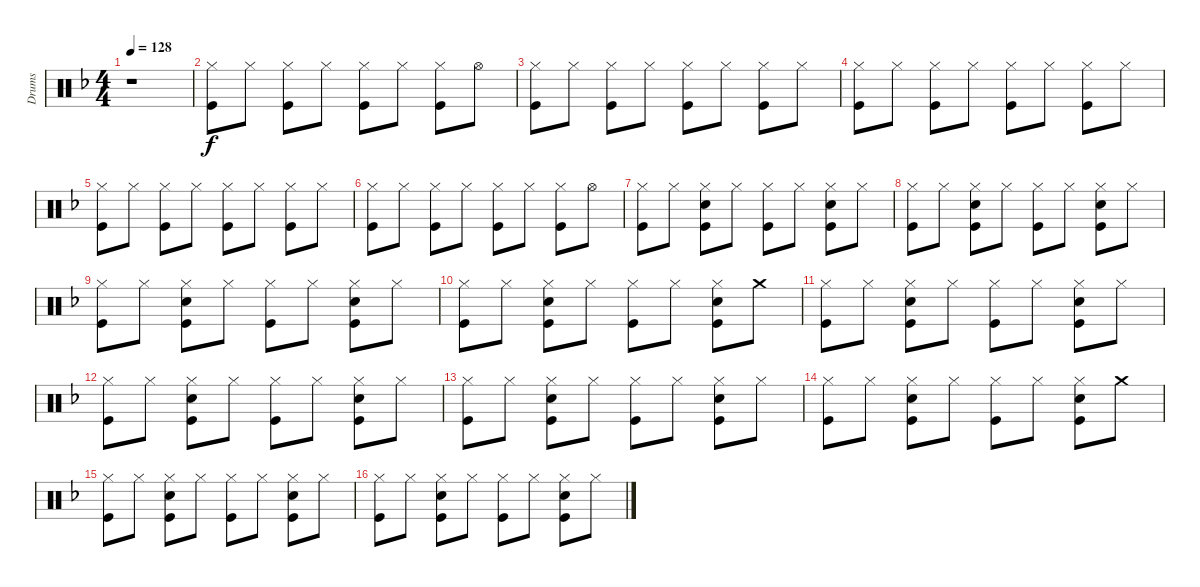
\track ("Drums" "Drums") {instrument percussion}
\staff {score}
\articulation defaults
\ts (4 4)
\tempo 128
\clef neutral
\ks f
r.1{dy f} |
("Hi-Hat (closed)" "Kick (hit)").8 "Hi-Hat (closed)".8 ("Hi-Hat (closed)" "Kick (hit)").8 "Hi-Hat (closed)".8 ("Hi-Hat (closed)" "Kick (hit)").8 "Hi-Hat (closed)".8 ("Hi-Hat (closed)" "Kick (hit)").8 "Hi-Hat (open)".8 |
("Hi-Hat (closed)" "Kick (hit)").8 "Hi-Hat (closed)".8 ("Hi-Hat (closed)" "Kick (hit)").8 "Hi-Hat (closed)".8 ("Hi-Hat (closed)" "Kick (hit)").8 "Hi-Hat (closed)".8 ("Hi-Hat (closed)" "Kick (hit)").8 "Hi-Hat (closed)".8 |
("Hi-Hat (closed)" "Kick (hit)").8 "Hi-Hat (closed)".8 ("Hi-Hat (closed)" "Kick (hit)").8 "Hi-Hat (closed)".8 ("Hi-Hat (closed)" "Kick (hit)").8 "Hi-Hat (closed)".8 ("Hi-Hat (closed)" "Kick (hit)").8 "Hi-Hat (closed)".8 |
("Hi-Hat (closed)" "Kick (hit)").8 "Hi-Hat (closed)".8 ("Hi-Hat (closed)" "Kick (hit)").8 "Hi-Hat (closed)".8 ("Hi-Hat (closed)" "Kick (hit)").8 "Hi-Hat (closed)".8 ("Hi-Hat (closed)" "Kick (hit)").8 "Hi-Hat (closed)".8 |
("Hi-Hat (closed)" "Kick (hit)").8 "Hi-Hat (closed)".8 ("Hi-Hat (closed)" "Kick (hit)").8 "Hi-Hat (closed)".8 ("Hi-Hat (closed)" "Kick (hit)").8 "Hi-Hat (closed)".8 ("Hi-Hat (closed)" "Kick (hit)").8 "Hi-Hat (open)".8 |
("Hi-Hat (closed)" "Kick (hit)").8 "Hi-Hat (closed)".8 ("Hi-Hat (closed)" "Snare (hit) 2" "Kick (hit)").8 "Hi-Hat (closed)".8 ("Hi-Hat (closed)" "Kick (hit)").8 "Hi-Hat (closed)".8 ("Hi-Hat (closed)" "Snare (hit) 2" "Kick (hit)").8 "Hi-Hat (closed)".8 |
("Hi-Hat (closed)" "Kick (hit)").8 "Hi-Hat (closed)".8 ("Hi-Hat (closed)" "Snare (hit) 2" "Kick (hit)").8 "Hi-Hat (closed)".8 ("Hi-Hat (closed)" "Kick (hit)").8 "Hi-Hat (closed)".8 ("Hi-Hat (closed)" "Snare (hit) 2" "Kick (hit)").8 "Hi-Hat (closed)".8 |
("Hi-Hat (closed)" "Kick (hit)").8 "Hi-Hat (closed)".8 ("Hi-Hat (closed)" "Snare (hit) 2" "Kick (hit)").8 "Hi-Hat (closed)".8 ("Hi-Hat (closed)" "Kick (hit)").8 "Hi-Hat (closed)".8 ("Hi-Hat (closed)" "Snare (hit) 2" "Kick (hit)").8 "Hi-Hat (closed)".8 |
("Hi-Hat (closed)" "Kick (hit)").8 "Hi-Hat (closed)".8 ("Hi-Hat (closed)" "Snare (hit) 2" "Kick (hit)").8 "Hi-Hat (closed)".8 ("Hi-Hat (closed)" "Kick (hit)").8 "Hi-Hat (closed)".8 ("Hi-Hat (closed)" "Snare (hit) 2" "Kick (hit)").8 "Crash medium (hit)".8 |
("Hi-Hat (closed)" "Kick (hit)").8 "Hi-Hat (closed)".8 ("Hi-Hat (closed)" "Snare (hit) 2" "Kick (hit)").8 "Hi-Hat (closed)".8 ("Hi-Hat (closed)" "Kick (hit)").8 "Hi-Hat (closed)".8 ("Hi-Hat (closed)" "Snare (hit) 2" "Kick (hit)").8 "Hi-Hat (closed)".8 |
("Hi-Hat (closed)" "Kick (hit)").8 "Hi-Hat (closed)".8 ("Hi-Hat (closed)" "Snare (hit) 2" "Kick (hit)").8 "Hi-Hat (closed)".8 ("Hi-Hat (closed)" "Kick (hit)").8 "Hi-Hat (closed)".8 ("Hi-Hat (closed)" "Snare (hit) 2" "Kick (hit)").8 "Hi-Hat (closed)".8 |
("Hi-Hat (closed)" "Kick (hit)").8 "Hi-Hat (closed)".8 ("Hi-Hat (closed)" "Snare (hit) 2" "Kick (hit)").8 "Hi-Hat (closed)".8 ("Hi-Hat (closed)" "Kick (hit)").8 "Hi-Hat (closed)".8 ("Hi-Hat (closed)" "Snare (hit) 2" "Kick (hit)").8 "Hi-Hat (closed)".8 |
("Hi-Hat (closed)" "Kick (hit)").8 "Hi-Hat (closed)".8 ("Hi-Hat (closed)" "Snare (hit) 2" "Kick (hit)").8 "Hi-Hat (closed)".8 ("Hi-Hat (closed)" "Kick (hit)").8 "Hi-Hat (closed)".8 ("Hi-Hat (closed)" "Snare (hit) 2" "Kick (hit)").8 "Crash medium (hit)".8 |
("Hi-Hat (closed)" "Kick (hit)").8 "Hi-Hat (closed)".8 ("Hi-Hat (closed)" "Snare (hit) 2" "Kick (hit)").8 "Hi-Hat (closed)".8 ("Hi-Hat (closed)" "Kick (hit)").8 "Hi-Hat (closed)".8 ("Hi-Hat (closed)" "Snare (hit) 2" "Kick (hit)").8 "Hi-Hat (closed)".8 |
("Hi-Hat (closed)" "Kick (hit)").8 "Hi-Hat (closed)".8 ("Hi-Hat (closed)" "Snare (hit) 2" "Kick (hit)").8 "Hi-Hat (closed)".8 ("Hi-Hat (closed)" "Kick (hit)").8 "Hi-Hat (closed)".8 ("Hi-Hat (closed)" "Snare (hit) 2" "Kick (hit)").8 "Hi-Hat (closed)".8
